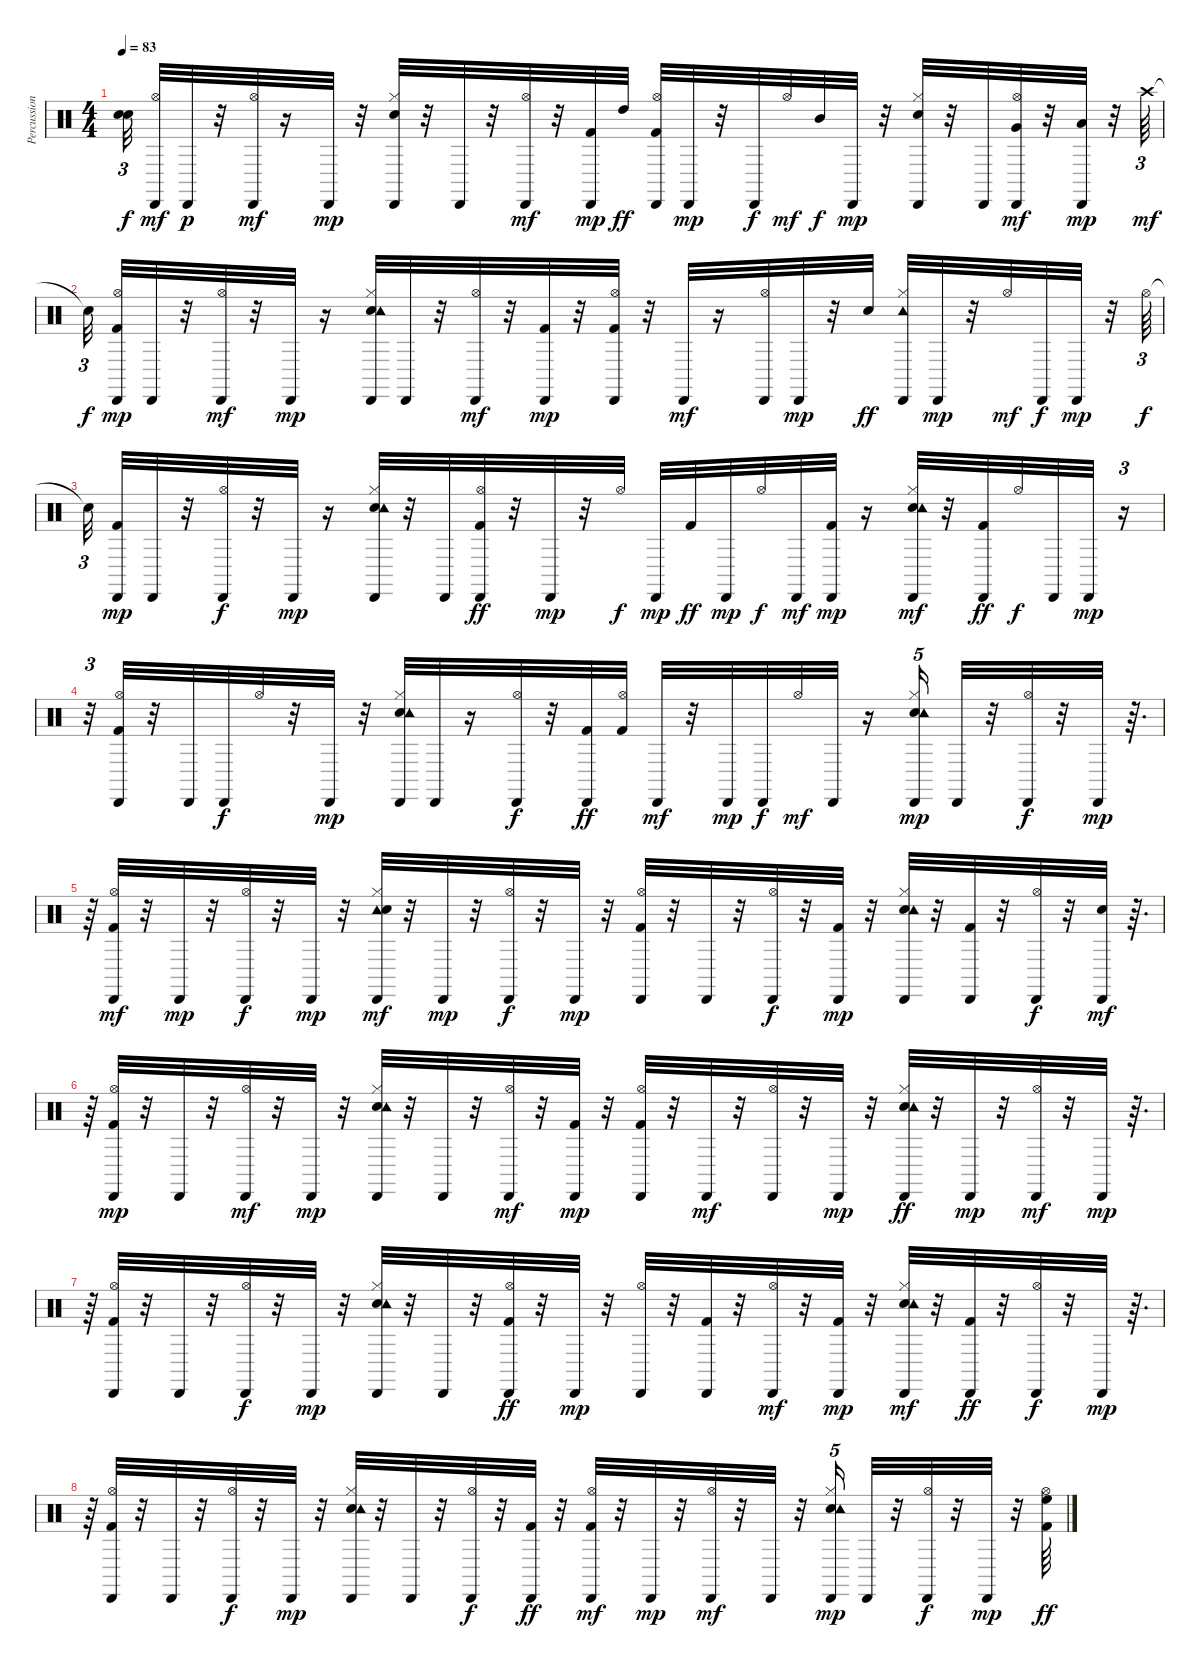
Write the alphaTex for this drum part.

\track ("Percussion" "Percussion") {instrument percussion}
\staff {score}
\articulation defaults
\ts (4 4)
\tempo 83
\clef neutral
\ks c
("Snare (hit)"{t} "Snare (hit)"{t}).32{tu (3 2) dy f} ("Hi-Hat (open)" "Cabasa (hit)").32{dy mf} "Cabasa (hit)".32{dy p} r.32 ("Cabasa (hit)" "Hi-Hat (open)").32{dy mf} r.16 "Cabasa (hit)".32{dy mp} r.32 ("Hi-Hat (closed)" "Electric Snare (hit)" "Cabasa (hit)").32 r.32 "Cabasa (hit)".32 r.32 ("Cabasa (hit)" "Hi-Hat (open)").32{dy mf} r.32 ("Cabasa (hit)" "Kick (hit) 2").32{dy mp} "High Tom (hit)".32{dy ff} ("Cabasa (hit)" "Hi-Hat (open)" "Kick (hit) 2").32 "Cabasa (hit)".32{dy mp} r.32 "Cabasa (hit)".32{dy f} "Hi-Hat (open)".32{dy mf} "Mid Tom (hit)".32{dy f} "Cabasa (hit)".32{dy mp} r.32 ("Hi-Hat (closed)" "Electric Snare (hit)" "Cabasa (hit)").32 r.32 "Cabasa (hit)".32 ("Very Low Tom (hit)" "Cabasa (hit)" "Hi-Hat (open)").32{dy mf} r.32 ("Low Floor Tom (hit)" "Cabasa (hit)").32{dy mp} r.32 "Crash high (hit)".64{tu (3 2) dy mf} |
"Snare (hit)"{t}.32{tu (3 2) dy f} ("Kick (hit) 2" "Hi-Hat (open)" "Cabasa (hit)").32{dy mp} "Cabasa (hit)".32 r.32 ("Hi-Hat (open)" "Cabasa (hit)").32{dy mf} r.32 "Cabasa (hit)".32{dy mp} r.16 ("Electric Snare (hit)" "Tambourine (hit)" "Hi-Hat (closed)" "Cabasa (hit)").32 "Cabasa (hit)".32 r.32 ("Cabasa (hit)" "Hi-Hat (open)").32{dy mf} r.32 ("Kick (hit) 2" "Cabasa (hit)").32{dy mp} r.32 ("Kick (hit) 2" "Cabasa (hit)" "Hi-Hat (open)").32 r.32 "Cabasa (hit)".32{dy mf} r.16 ("Cabasa (hit)" "Hi-Hat (open)").32 "Cabasa (hit)".32{dy mp} r.32 "Electric Snare (hit)".32{dy ff} ("Tambourine (hit)" "Cabasa (hit)" "Hi-Hat (closed)").32 "Cabasa (hit)".32{dy mp} r.32 "Hi-Hat (open)".32{dy mf} "Cabasa (hit)".32{dy f} "Cabasa (hit)".32{dy mp} r.32 "Hi-Hat (open)".64{tu (3 2) dy f} |
"Snare (hit)"{t}.32{tu (3 2)} ("Kick (hit) 2" "Cabasa (hit)").32{dy mp} "Cabasa (hit)".32 r.32 ("Hi-Hat (open)" "Cabasa (hit)").32{dy f} r.32 "Cabasa (hit)".32{dy mp} r.16 ("Electric Snare (hit)" "Tambourine (hit)" "Hi-Hat (closed)" "Cabasa (hit)").32 r.32 "Cabasa (hit)".32 ("Cabasa (hit)" "Hi-Hat (open)" "Kick (hit) 2").32{dy ff} r.32 "Cabasa (hit)".32{dy mp} r.32 "Hi-Hat (open)".32{dy f} "Cabasa (hit)".32{dy mp} "Kick (hit) 2".32{dy ff} "Cabasa (hit)".32{dy mp} "Hi-Hat (open)".32{dy f} "Cabasa (hit)".32{dy mf} ("Kick (hit) 2" "Cabasa (hit)").32{dy mp} r.16 ("Hi-Hat (closed)" "Electric Snare (hit)" "Tambourine (hit)" "Cabasa (hit)").32{dy mf} r.32 ("Cabasa (hit)" "Kick (hit) 2").32{dy ff} "Hi-Hat (open)".32{dy f} "Cabasa (hit)".32 "Cabasa (hit)".32{dy mp} r.16{tu (3 2)} |
r.32{tu (3 2)} ("Kick (hit) 2" "Cabasa (hit)" "Hi-Hat (open)").32 r.32 "Cabasa (hit)".32 "Cabasa (hit)".32{dy f} "Hi-Hat (open)".32 r.32 "Cabasa (hit)".32{dy mp} r.32 ("Electric Snare (hit)" "Cabasa (hit)" "Hi-Hat (closed)" "Tambourine (hit)").32 "Cabasa (hit)".32 r.16 ("Hi-Hat (open)" "Cabasa (hit)").32{dy f} r.32 ("Cabasa (hit)" "Kick (hit) 2").32{dy ff} ("Kick (hit) 2" "Hi-Hat (open)").32 "Cabasa (hit)".32{dy mf} r.32 "Cabasa (hit)".32{dy mp} "Cabasa (hit)".32{dy f} "Hi-Hat (open)".32{dy mf} "Cabasa (hit)".32 r.16 ("Hi-Hat (closed)" "Electric Snare (hit)" "Cabasa (hit)" "Tambourine (hit)").16{tu (5 4) dy mp} "Cabasa (hit)".32 r.32 ("Hi-Hat (open)" "Cabasa (hit)").32{dy f} r.32 "Cabasa (hit)".32{dy mp} r.64{d} |
r.64 ("Hi-Hat (open)" "Kick (hit) 2" "Cabasa (hit)").32{dy mf} r.32 "Cabasa (hit)".32{dy mp} r.32 ("Hi-Hat (open)" "Cabasa (hit)").32{dy f} r.32 "Cabasa (hit)".32{dy mp} r.32 ("Tambourine (hit)" "Electric Snare (hit)" "Hi-Hat (closed)" "Cabasa (hit)").32{dy mf} r.32 "Cabasa (hit)".32{dy mp} r.32 ("Hi-Hat (open)" "Cabasa (hit)").32{dy f} r.32 "Cabasa (hit)".32{dy mp} r.32 ("Kick (hit) 2" "Cabasa (hit)" "Hi-Hat (open)").32 r.32 "Cabasa (hit)".32 r.32 ("Hi-Hat (open)" "Cabasa (hit)").32{dy f} r.32 ("Kick (hit) 2" "Cabasa (hit)").32{dy mp} r.32 ("Hi-Hat (closed)" "Cabasa (hit)" "Electric Snare (hit)" "Tambourine (hit)").32 r.32 ("Kick (hit) 2" "Cabasa (hit)").32 r.32 ("Hi-Hat (open)" "Cabasa (hit)").32{dy f} r.32 ("Electric Snare (hit)" "Cabasa (hit)").32{dy mf} r.64{d} |
r.64 ("Kick (hit) 2" "Hi-Hat (open)" "Cabasa (hit)").32{dy mp} r.32 "Cabasa (hit)".32 r.32 ("Hi-Hat (open)" "Cabasa (hit)").32{dy mf} r.32 "Cabasa (hit)".32{dy mp} r.32 ("Electric Snare (hit)" "Tambourine (hit)" "Hi-Hat (closed)" "Cabasa (hit)").32 r.32 "Cabasa (hit)".32 r.32 ("Cabasa (hit)" "Hi-Hat (open)").32{dy mf} r.32 ("Kick (hit) 2" "Cabasa (hit)").32{dy mp} r.32 ("Kick (hit) 2" "Cabasa (hit)" "Hi-Hat (open)").32 r.32 "Cabasa (hit)".32{dy mf} r.32 ("Cabasa (hit)" "Hi-Hat (open)").32 r.32 "Cabasa (hit)".32{dy mp} r.32 ("Electric Snare (hit)" "Tambourine (hit)" "Cabasa (hit)" "Hi-Hat (closed)").32{dy ff} r.32 "Cabasa (hit)".32{dy mp} r.32 ("Hi-Hat (open)" "Cabasa (hit)").32{dy mf} r.32 "Cabasa (hit)".32{dy mp} r.64{d} |
r.64 ("Hi-Hat (open)" "Kick (hit) 2" "Cabasa (hit)").32 r.32 "Cabasa (hit)".32 r.32 ("Hi-Hat (open)" "Cabasa (hit)").32{dy f} r.32 "Cabasa (hit)".32{dy mp} r.32 ("Electric Snare (hit)" "Tambourine (hit)" "Hi-Hat (closed)" "Cabasa (hit)").32 r.32 "Cabasa (hit)".32 r.32 ("Cabasa (hit)" "Hi-Hat (open)" "Kick (hit) 2").32{dy ff} r.32 "Cabasa (hit)".32{dy mp} r.32 ("Hi-Hat (open)" "Cabasa (hit)").32 r.32 ("Kick (hit) 2" "Cabasa (hit)").32 r.32 ("Hi-Hat (open)" "Cabasa (hit)").32{dy mf} r.32 ("Kick (hit) 2" "Cabasa (hit)").32{dy mp} r.32 ("Hi-Hat (closed)" "Electric Snare (hit)" "Tambourine (hit)" "Cabasa (hit)").32{dy mf} r.32 ("Cabasa (hit)" "Kick (hit) 2").32{dy ff} r.32 ("Hi-Hat (open)" "Cabasa (hit)").32{dy f} r.32 "Cabasa (hit)".32{dy mp} r.64{d} |
r.64 ("Kick (hit) 2" "Cabasa (hit)" "Hi-Hat (open)").32 r.32 "Cabasa (hit)".32 r.32 ("Cabasa (hit)" "Hi-Hat (open)").32{dy f} r.32 "Cabasa (hit)".32{dy mp} r.32 ("Electric Snare (hit)" "Cabasa (hit)" "Hi-Hat (closed)" "Tambourine (hit)").32 r.32 "Cabasa (hit)".32 r.32 ("Hi-Hat (open)" "Cabasa (hit)").32{dy f} r.32 ("Cabasa (hit)" "Kick (hit) 2").32{dy ff} r.32 ("Kick (hit) 2" "Hi-Hat (open)" "Cabasa (hit)").32{dy mf} r.32 "Cabasa (hit)".32{dy mp} r.32 ("Cabasa (hit)" "Hi-Hat (open)").32{dy mf} r.32 "Cabasa (hit)".32 r.32 ("Hi-Hat (closed)" "Electric Snare (hit)" "Cabasa (hit)" "Tambourine (hit)").16{tu (5 4) dy mp} "Cabasa (hit)".32 r.32 ("Hi-Hat (open)" "Cabasa (hit)").32{dy f} r.32 "Cabasa (hit)".32{dy mp} r.32 ("High Floor Tom (hit)" "Hi-Hat (open)" "Kick (hit) 2").64{dy ff}
